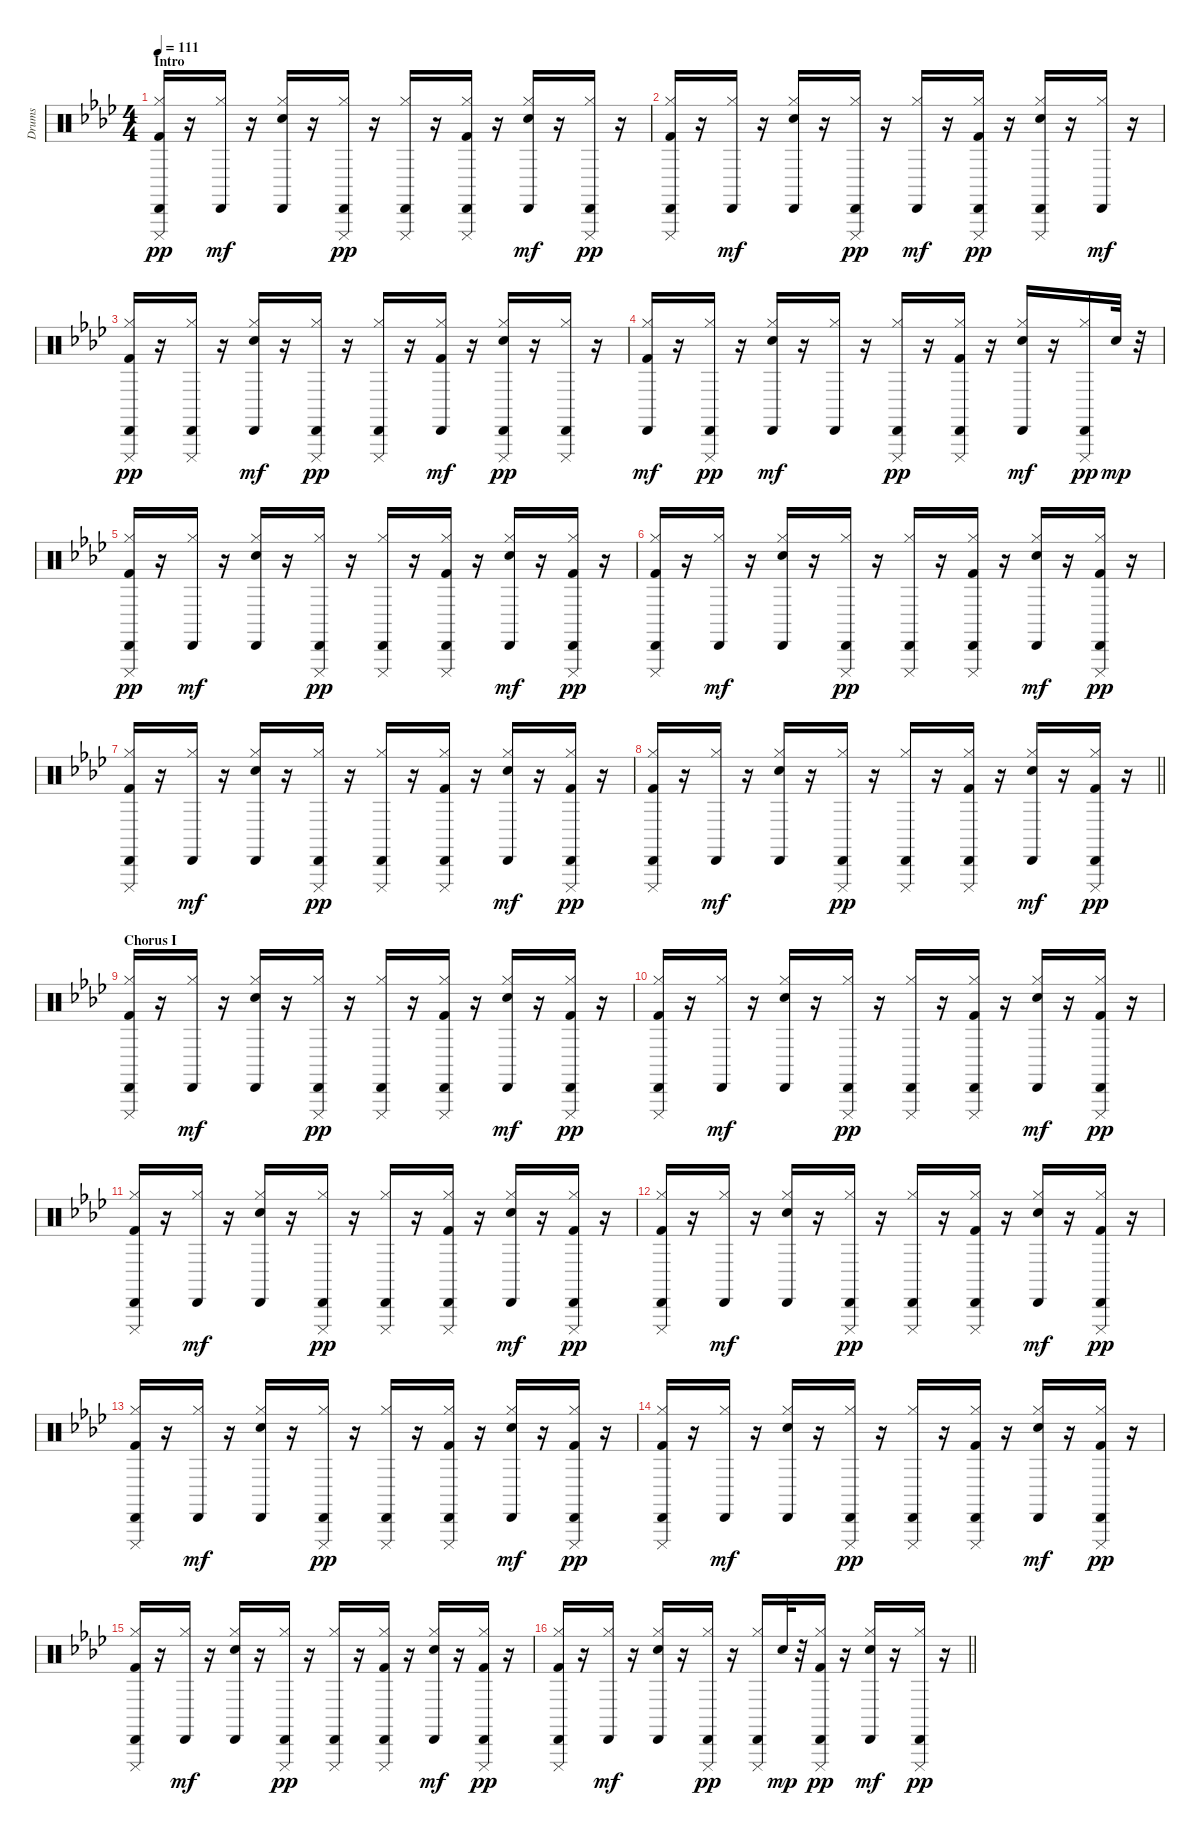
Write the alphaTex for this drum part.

\track ("Drums" "Drums") {instrument percussion}
\staff {score}
\articulation defaults
\ts (4 4)
\section ("" "Intro")
\tempo 111
\clef neutral
\ks ab
("Kick (hit) 2" "Hi-Hat (closed)" "Cabasa (hit)" "Cuica (mute)").16{dy pp} r.16 ("Hi-Hat (closed)" "Cabasa (hit)").16{dy mf} r.16 ("Electric Snare (hit)" "Hi-Hat (closed)" "Cabasa (hit)").16 r.16 ("Hi-Hat (closed)" "Cabasa (hit)" "Cuica (mute)").16{dy pp} r.16 ("Hi-Hat (closed)" "Cabasa (hit)" "Cuica (mute)").16 r.16 ("Kick (hit) 2" "Hi-Hat (closed)" "Cabasa (hit)" "Cuica (mute)").16 r.16 ("Electric Snare (hit)" "Hi-Hat (closed)" "Cabasa (hit)").16{dy mf} r.16 ("Hi-Hat (closed)" "Cabasa (hit)" "Cuica (mute)").16{dy pp} r.16 |
("Kick (hit) 2" "Hi-Hat (closed)" "Cabasa (hit)" "Cuica (mute)").16 r.16 ("Hi-Hat (closed)" "Cabasa (hit)").16{dy mf} r.16 ("Electric Snare (hit)" "Hi-Hat (closed)" "Cabasa (hit)").16 r.16 ("Hi-Hat (closed)" "Cabasa (hit)" "Cuica (mute)").16{dy pp} r.16 ("Hi-Hat (closed)" "Cabasa (hit)").16{dy mf} r.16 ("Kick (hit) 2" "Hi-Hat (closed)" "Cabasa (hit)" "Cuica (mute)").16{dy pp} r.16 ("Electric Snare (hit)" "Hi-Hat (closed)" "Cabasa (hit)" "Cuica (mute)").16 r.16 ("Hi-Hat (closed)" "Cabasa (hit)").16{dy mf} r.16 |
("Kick (hit) 2" "Hi-Hat (closed)" "Cabasa (hit)" "Cuica (mute)").16{dy pp} r.16 ("Hi-Hat (closed)" "Cabasa (hit)" "Cuica (mute)").16 r.16 ("Electric Snare (hit)" "Hi-Hat (closed)" "Cabasa (hit)").16{dy mf} r.16 ("Hi-Hat (closed)" "Cabasa (hit)" "Cuica (mute)").16{dy pp} r.16 ("Hi-Hat (closed)" "Cabasa (hit)" "Cuica (mute)").16 r.16 ("Kick (hit) 2" "Hi-Hat (closed)" "Cabasa (hit)").16{dy mf} r.16 ("Electric Snare (hit)" "Hi-Hat (closed)" "Cabasa (hit)" "Cuica (mute)").16{dy pp} r.16 ("Hi-Hat (closed)" "Cabasa (hit)" "Cuica (mute)").16 r.16 |
("Kick (hit) 2" "Hi-Hat (closed)" "Cabasa (hit)").16{dy mf} r.16 ("Hi-Hat (closed)" "Cabasa (hit)" "Cuica (mute)").16{dy pp} r.16 ("Electric Snare (hit)" "Hi-Hat (closed)" "Cabasa (hit)").16{dy mf} r.16 ("Hi-Hat (closed)" "Cabasa (hit)").16 r.16 ("Hi-Hat (closed)" "Cabasa (hit)" "Cuica (mute)").16{dy pp} r.16 ("Kick (hit) 2" "Hi-Hat (closed)" "Cabasa (hit)" "Cuica (mute)").16 r.16 ("Electric Snare (hit)" "Hi-Hat (closed)" "Cabasa (hit)").16{dy mf} r.16 ("Hi-Hat (closed)" "Cabasa (hit)" "Cuica (mute)").16{dy pp} "Electric Snare (hit)".32{dy mp} r.32 |
("Kick (hit) 2" "Hi-Hat (closed)" "Cabasa (hit)" "Cuica (mute)").16{dy pp} r.16 ("Hi-Hat (closed)" "Cabasa (hit)").16{dy mf} r.16 ("Electric Snare (hit)" "Hi-Hat (closed)" "Cabasa (hit)").16 r.16 ("Hi-Hat (closed)" "Cabasa (hit)" "Cuica (mute)").16{dy pp} r.16 ("Hi-Hat (closed)" "Cabasa (hit)" "Cuica (mute)").16 r.16 ("Kick (hit) 2" "Hi-Hat (closed)" "Cabasa (hit)" "Cuica (mute)").16 r.16 ("Electric Snare (hit)" "Hi-Hat (closed)" "Cabasa (hit)").16{dy mf} r.16 ("Kick (hit) 2" "Hi-Hat (closed)" "Cabasa (hit)" "Cuica (mute)").16{dy pp} r.16 |
("Kick (hit) 2" "Hi-Hat (closed)" "Cabasa (hit)" "Cuica (mute)").16 r.16 ("Hi-Hat (closed)" "Cabasa (hit)").16{dy mf} r.16 ("Electric Snare (hit)" "Hi-Hat (closed)" "Cabasa (hit)").16 r.16 ("Hi-Hat (closed)" "Cabasa (hit)" "Cuica (mute)").16{dy pp} r.16 ("Hi-Hat (closed)" "Cabasa (hit)" "Cuica (mute)").16 r.16 ("Kick (hit) 2" "Hi-Hat (closed)" "Cabasa (hit)" "Cuica (mute)").16 r.16 ("Electric Snare (hit)" "Hi-Hat (closed)" "Cabasa (hit)").16{dy mf} r.16 ("Kick (hit) 2" "Hi-Hat (closed)" "Cabasa (hit)" "Cuica (mute)").16{dy pp} r.16 |
("Kick (hit) 2" "Hi-Hat (closed)" "Cabasa (hit)" "Cuica (mute)").16 r.16 ("Hi-Hat (closed)" "Cabasa (hit)").16{dy mf} r.16 ("Electric Snare (hit)" "Hi-Hat (closed)" "Cabasa (hit)").16 r.16 ("Hi-Hat (closed)" "Cabasa (hit)" "Cuica (mute)").16{dy pp} r.16 ("Hi-Hat (closed)" "Cabasa (hit)" "Cuica (mute)").16 r.16 ("Kick (hit) 2" "Hi-Hat (closed)" "Cabasa (hit)" "Cuica (mute)").16 r.16 ("Electric Snare (hit)" "Hi-Hat (closed)" "Cabasa (hit)").16{dy mf} r.16 ("Kick (hit) 2" "Hi-Hat (closed)" "Cabasa (hit)" "Cuica (mute)").16{dy pp} r.16 |
\barLineRight lightlight
("Kick (hit) 2" "Hi-Hat (closed)" "Cabasa (hit)" "Cuica (mute)").16 r.16 ("Hi-Hat (closed)" "Cabasa (hit)").16{dy mf} r.16 ("Electric Snare (hit)" "Hi-Hat (closed)" "Cabasa (hit)").16 r.16 ("Hi-Hat (closed)" "Cabasa (hit)" "Cuica (mute)").16{dy pp} r.16 ("Hi-Hat (closed)" "Cabasa (hit)" "Cuica (mute)").16 r.16 ("Kick (hit) 2" "Hi-Hat (closed)" "Cabasa (hit)" "Cuica (mute)").16 r.16 ("Electric Snare (hit)" "Hi-Hat (closed)" "Cabasa (hit)").16{dy mf} r.16 ("Kick (hit) 2" "Hi-Hat (closed)" "Cabasa (hit)" "Cuica (mute)").16{dy pp} r.16 |
\section ("" "Chorus I")
("Kick (hit) 2" "Hi-Hat (closed)" "Cabasa (hit)" "Cuica (mute)").16 r.16 ("Hi-Hat (closed)" "Cabasa (hit)").16{dy mf} r.16 ("Electric Snare (hit)" "Hi-Hat (closed)" "Cabasa (hit)").16 r.16 ("Hi-Hat (closed)" "Cabasa (hit)" "Cuica (mute)").16{dy pp} r.16 ("Hi-Hat (closed)" "Cabasa (hit)" "Cuica (mute)").16 r.16 ("Kick (hit) 2" "Hi-Hat (closed)" "Cabasa (hit)" "Cuica (mute)").16 r.16 ("Electric Snare (hit)" "Hi-Hat (closed)" "Cabasa (hit)").16{dy mf} r.16 ("Kick (hit) 2" "Hi-Hat (closed)" "Cabasa (hit)" "Cuica (mute)").16{dy pp} r.16 |
("Kick (hit) 2" "Hi-Hat (closed)" "Cabasa (hit)" "Cuica (mute)").16 r.16 ("Hi-Hat (closed)" "Cabasa (hit)").16{dy mf} r.16 ("Electric Snare (hit)" "Hi-Hat (closed)" "Cabasa (hit)").16 r.16 ("Hi-Hat (closed)" "Cabasa (hit)" "Cuica (mute)").16{dy pp} r.16 ("Hi-Hat (closed)" "Cabasa (hit)" "Cuica (mute)").16 r.16 ("Kick (hit) 2" "Hi-Hat (closed)" "Cabasa (hit)" "Cuica (mute)").16 r.16 ("Electric Snare (hit)" "Hi-Hat (closed)" "Cabasa (hit)").16{dy mf} r.16 ("Kick (hit) 2" "Hi-Hat (closed)" "Cabasa (hit)" "Cuica (mute)").16{dy pp} r.16 |
("Kick (hit) 2" "Hi-Hat (closed)" "Cabasa (hit)" "Cuica (mute)").16 r.16 ("Hi-Hat (closed)" "Cabasa (hit)").16{dy mf} r.16 ("Electric Snare (hit)" "Hi-Hat (closed)" "Cabasa (hit)").16 r.16 ("Hi-Hat (closed)" "Cabasa (hit)" "Cuica (mute)").16{dy pp} r.16 ("Hi-Hat (closed)" "Cabasa (hit)" "Cuica (mute)").16 r.16 ("Kick (hit) 2" "Hi-Hat (closed)" "Cabasa (hit)" "Cuica (mute)").16 r.16 ("Electric Snare (hit)" "Hi-Hat (closed)" "Cabasa (hit)").16{dy mf} r.16 ("Kick (hit) 2" "Hi-Hat (closed)" "Cabasa (hit)" "Cuica (mute)").16{dy pp} r.16 |
("Kick (hit) 2" "Hi-Hat (closed)" "Cabasa (hit)" "Cuica (mute)").16 r.16 ("Hi-Hat (closed)" "Cabasa (hit)").16{dy mf} r.16 ("Electric Snare (hit)" "Hi-Hat (closed)" "Cabasa (hit)").16 r.16 ("Hi-Hat (closed)" "Cabasa (hit)" "Cuica (mute)").16{dy pp} r.16 ("Hi-Hat (closed)" "Cabasa (hit)" "Cuica (mute)").16 r.16 ("Kick (hit) 2" "Hi-Hat (closed)" "Cabasa (hit)" "Cuica (mute)").16 r.16 ("Electric Snare (hit)" "Hi-Hat (closed)" "Cabasa (hit)").16{dy mf} r.16 ("Kick (hit) 2" "Hi-Hat (closed)" "Cabasa (hit)" "Cuica (mute)").16{dy pp} r.16 |
("Kick (hit) 2" "Hi-Hat (closed)" "Cabasa (hit)" "Cuica (mute)").16 r.16 ("Hi-Hat (closed)" "Cabasa (hit)").16{dy mf} r.16 ("Electric Snare (hit)" "Hi-Hat (closed)" "Cabasa (hit)").16 r.16 ("Hi-Hat (closed)" "Cabasa (hit)" "Cuica (mute)").16{dy pp} r.16 ("Hi-Hat (closed)" "Cabasa (hit)" "Cuica (mute)").16 r.16 ("Kick (hit) 2" "Hi-Hat (closed)" "Cabasa (hit)" "Cuica (mute)").16 r.16 ("Electric Snare (hit)" "Hi-Hat (closed)" "Cabasa (hit)").16{dy mf} r.16 ("Kick (hit) 2" "Hi-Hat (closed)" "Cabasa (hit)" "Cuica (mute)").16{dy pp} r.16 |
("Kick (hit) 2" "Hi-Hat (closed)" "Cabasa (hit)" "Cuica (mute)").16 r.16 ("Hi-Hat (closed)" "Cabasa (hit)").16{dy mf} r.16 ("Electric Snare (hit)" "Hi-Hat (closed)" "Cabasa (hit)").16 r.16 ("Hi-Hat (closed)" "Cabasa (hit)" "Cuica (mute)").16{dy pp} r.16 ("Hi-Hat (closed)" "Cabasa (hit)" "Cuica (mute)").16 r.16 ("Kick (hit) 2" "Hi-Hat (closed)" "Cabasa (hit)" "Cuica (mute)").16 r.16 ("Electric Snare (hit)" "Hi-Hat (closed)" "Cabasa (hit)").16{dy mf} r.16 ("Kick (hit) 2" "Hi-Hat (closed)" "Cabasa (hit)" "Cuica (mute)").16{dy pp} r.16 |
("Kick (hit) 2" "Hi-Hat (closed)" "Cabasa (hit)" "Cuica (mute)").16 r.16 ("Hi-Hat (closed)" "Cabasa (hit)").16{dy mf} r.16 ("Electric Snare (hit)" "Hi-Hat (closed)" "Cabasa (hit)").16 r.16 ("Hi-Hat (closed)" "Cabasa (hit)" "Cuica (mute)").16{dy pp} r.16 ("Hi-Hat (closed)" "Cabasa (hit)" "Cuica (mute)").16 r.16 ("Kick (hit) 2" "Hi-Hat (closed)" "Cabasa (hit)" "Cuica (mute)").16 r.16 ("Electric Snare (hit)" "Hi-Hat (closed)" "Cabasa (hit)").16{dy mf} r.16 ("Kick (hit) 2" "Hi-Hat (closed)" "Cabasa (hit)" "Cuica (mute)").16{dy pp} r.16 |
\barLineRight lightlight
("Kick (hit) 2" "Hi-Hat (closed)" "Cabasa (hit)" "Cuica (mute)").16 r.16 ("Hi-Hat (closed)" "Cabasa (hit)").16{dy mf} r.16 ("Electric Snare (hit)" "Hi-Hat (closed)" "Cabasa (hit)").16 r.16 ("Hi-Hat (closed)" "Cabasa (hit)" "Cuica (mute)").16{dy pp} r.16 ("Hi-Hat (closed)" "Cabasa (hit)" "Cuica (mute)").16 "Electric Snare (hit)".32{dy mp} r.32 ("Kick (hit) 2" "Hi-Hat (closed)" "Cabasa (hit)" "Cuica (mute)").16{dy pp} r.16 ("Electric Snare (hit)" "Hi-Hat (closed)" "Cabasa (hit)").16{dy mf} r.16 ("Hi-Hat (closed)" "Cabasa (hit)" "Cuica (mute)").16{dy pp} r.16
